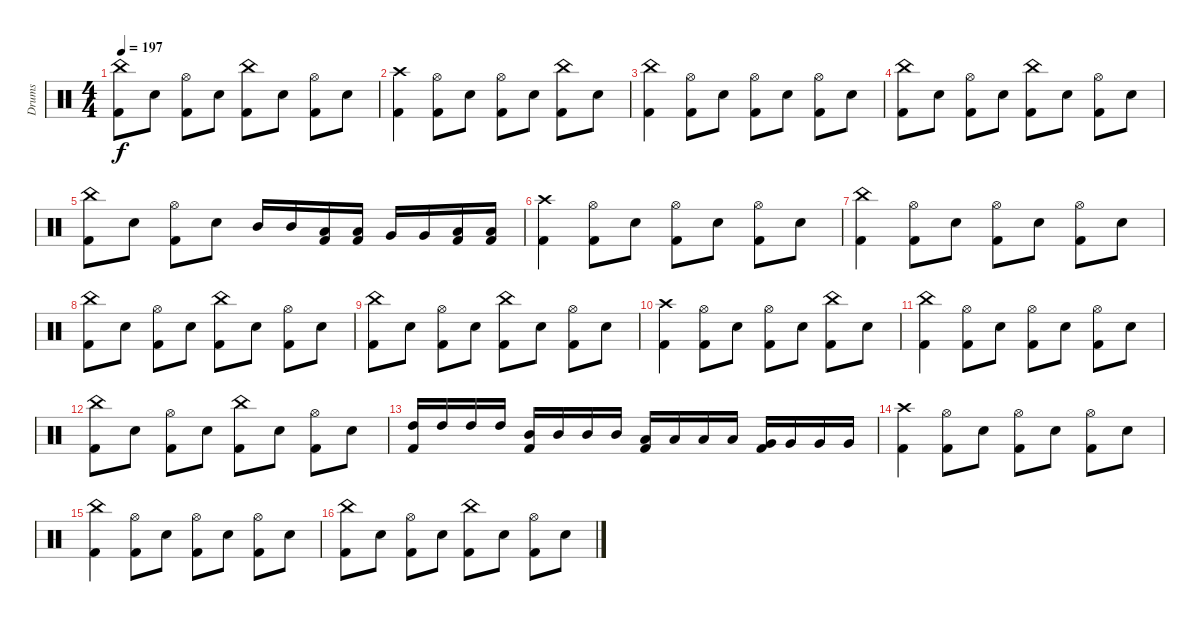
\track ("Drums" "Drums") {instrument percussion}
\staff {score}
\articulation defaults
\ts (4 4)
\tempo 197
\clef neutral
\ks c
("China (hit)" "Kick (hit) 2").8{dy f} "Electric Snare (hit)".8 ("Hi-Hat (open)" "Kick (hit) 2").8 "Electric Snare (hit)".8 ("China (hit)" "Kick (hit) 2").8 "Electric Snare (hit)".8 ("Hi-Hat (open)" "Kick (hit) 2").8 "Electric Snare (hit)".8 |
("Crash high (hit)" "Kick (hit) 2").4 ("Hi-Hat (open)" "Kick (hit) 2").8 "Electric Snare (hit)".8 ("Hi-Hat (open)" "Kick (hit) 2").8 "Electric Snare (hit)".8 ("China (hit)" "Kick (hit) 2").8 "Electric Snare (hit)".8 |
("China (hit)" "Kick (hit) 2").4 ("Hi-Hat (open)" "Kick (hit) 2").8 "Electric Snare (hit)".8 ("Hi-Hat (open)" "Kick (hit) 2").8 "Electric Snare (hit)".8 ("Hi-Hat (open)" "Kick (hit) 2").8 "Electric Snare (hit)".8 |
("China (hit)" "Kick (hit) 2").8 "Electric Snare (hit)".8 ("Hi-Hat (open)" "Kick (hit) 2").8 "Electric Snare (hit)".8 ("China (hit)" "Kick (hit) 2").8 "Electric Snare (hit)".8 ("Hi-Hat (open)" "Kick (hit) 2").8 "Electric Snare (hit)".8 |
("China (hit)" "Kick (hit) 2").8 "Electric Snare (hit)".8 ("Hi-Hat (open)" "Kick (hit) 2").8 "Electric Snare (hit)".8 "Mid Tom (hit)".16 "Mid Tom (hit)".16 ("Low Tom (hit)" "Kick (hit) 2").16 ("Low Tom (hit)" "Kick (hit) 2").16 "Very Low Tom (hit)".16 "Very Low Tom (hit)".16 ("Low Tom (hit)" "Kick (hit) 2").16 ("Low Tom (hit)" "Kick (hit) 2").16 |
("Crash high (hit)" "Kick (hit) 2").4 ("Hi-Hat (open)" "Kick (hit) 2").8 "Electric Snare (hit)".8 ("Hi-Hat (open)" "Kick (hit) 2").8 "Electric Snare (hit)".8 ("Hi-Hat (open)" "Kick (hit) 2").8 "Electric Snare (hit)".8 |
("China (hit)" "Kick (hit) 2").4 ("Hi-Hat (open)" "Kick (hit) 2").8 "Electric Snare (hit)".8 ("Hi-Hat (open)" "Kick (hit) 2").8 "Electric Snare (hit)".8 ("Hi-Hat (open)" "Kick (hit) 2").8 "Electric Snare (hit)".8 |
("China (hit)" "Kick (hit) 2").8 "Electric Snare (hit)".8 ("Hi-Hat (open)" "Kick (hit) 2").8 "Electric Snare (hit)".8 ("China (hit)" "Kick (hit) 2").8 "Electric Snare (hit)".8 ("Hi-Hat (open)" "Kick (hit) 2").8 "Electric Snare (hit)".8 |
("China (hit)" "Kick (hit) 2").8 "Electric Snare (hit)".8 ("Hi-Hat (open)" "Kick (hit) 2").8 "Electric Snare (hit)".8 ("China (hit)" "Kick (hit) 2").8 "Electric Snare (hit)".8 ("Hi-Hat (open)" "Kick (hit) 2").8 "Electric Snare (hit)".8 |
("Crash high (hit)" "Kick (hit) 2").4 ("Hi-Hat (open)" "Kick (hit) 2").8 "Electric Snare (hit)".8 ("Hi-Hat (open)" "Kick (hit) 2").8 "Electric Snare (hit)".8 ("China (hit)" "Kick (hit) 2").8 "Electric Snare (hit)".8 |
("China (hit)" "Kick (hit) 2").4 ("Hi-Hat (open)" "Kick (hit) 2").8 "Electric Snare (hit)".8 ("Hi-Hat (open)" "Kick (hit) 2").8 "Electric Snare (hit)".8 ("Hi-Hat (open)" "Kick (hit) 2").8 "Electric Snare (hit)".8 |
("China (hit)" "Kick (hit) 2").8 "Electric Snare (hit)".8 ("Hi-Hat (open)" "Kick (hit) 2").8 "Electric Snare (hit)".8 ("China (hit)" "Kick (hit) 2").8 "Electric Snare (hit)".8 ("Hi-Hat (open)" "Kick (hit) 2").8 "Electric Snare (hit)".8 |
("High Tom (hit)" "Kick (hit) 2").16 "High Tom (hit)".16 "High Tom (hit)".16 "High Tom (hit)".16 ("Mid Tom (hit)" "Kick (hit) 2").16 "Mid Tom (hit)".16 "Mid Tom (hit)".16 "Mid Tom (hit)".16 ("Low Tom (hit)" "Kick (hit) 2").16 "Low Tom (hit)".16 "Low Tom (hit)".16 "Low Tom (hit)".16 ("Very Low Tom (hit)" "Kick (hit) 2").16 "Very Low Tom (hit)".16 "Very Low Tom (hit)".16 "Very Low Tom (hit)".16 |
("Crash high (hit)" "Kick (hit) 2").4 ("Hi-Hat (open)" "Kick (hit) 2").8 "Electric Snare (hit)".8 ("Hi-Hat (open)" "Kick (hit) 2").8 "Electric Snare (hit)".8 ("Hi-Hat (open)" "Kick (hit) 2").8 "Electric Snare (hit)".8 |
("China (hit)" "Kick (hit) 2").4 ("Hi-Hat (open)" "Kick (hit) 2").8 "Electric Snare (hit)".8 ("Hi-Hat (open)" "Kick (hit) 2").8 "Electric Snare (hit)".8 ("Hi-Hat (open)" "Kick (hit) 2").8 "Electric Snare (hit)".8 |
("China (hit)" "Kick (hit) 2").8 "Electric Snare (hit)".8 ("Hi-Hat (open)" "Kick (hit) 2").8 "Electric Snare (hit)".8 ("China (hit)" "Kick (hit) 2").8 "Electric Snare (hit)".8 ("Hi-Hat (open)" "Kick (hit) 2").8 "Electric Snare (hit)".8
